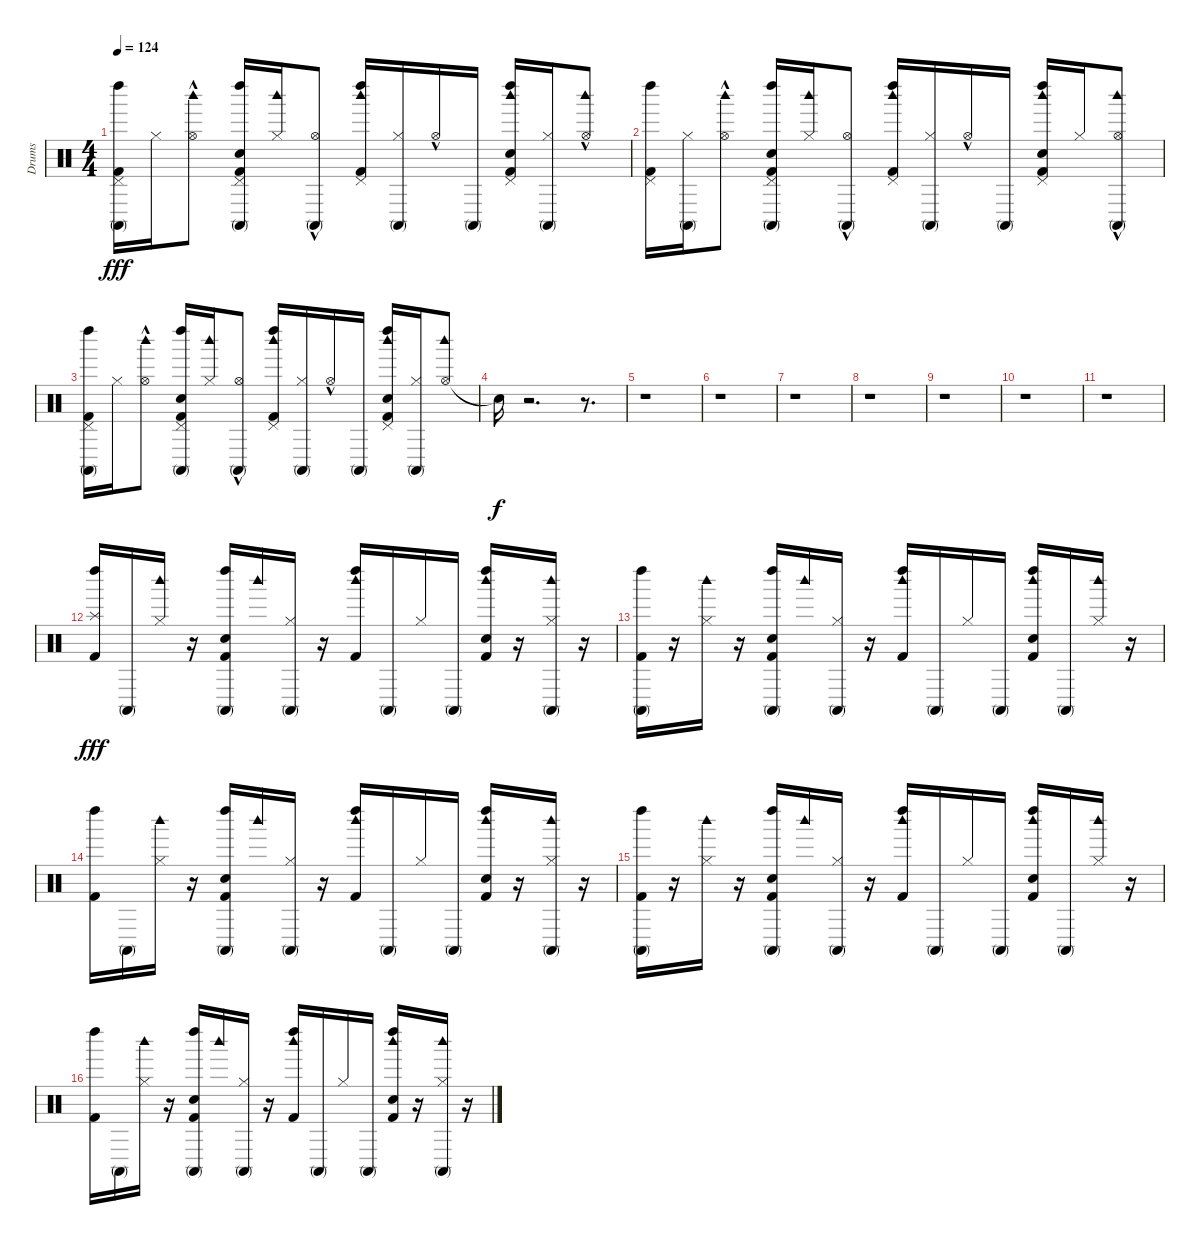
\track ("Drums" "Drums") {instrument percussion}
\staff {score}
\articulation defaults
\ts (4 4)
\tempo 124
\clef neutral
\ks c
("Pedal Hi-Hat (hit)" "Kick (hit) 2" "Conga high (mute)" "Left Maraca (hit)").16{dy fff} "Hi-Hat (closed)".16 ("Hi-Hat (open)"{hac} "Woodblock high (hit)").8 ("Electric Snare (hit)" "Pedal Hi-Hat (hit)" "Kick (hit) 2" "Conga high (mute)" "Left Maraca (hit)").16 ("Hi-Hat (closed)" "Woodblock high (hit)").16 ("Hi-Hat (open)"{hac} "Conga high (mute)").8 ("Pedal Hi-Hat (hit)" "Kick (hit) 2" "Woodblock high (hit)" "Left Maraca (hit)").16 ("Hi-Hat (closed)" "Conga high (mute)").16 "Hi-Hat (open)"{hac}.16 "Conga high (mute)".16 ("Electric Snare (hit)" "Pedal Hi-Hat (hit)" "Kick (hit) 2" "Woodblock high (hit)" "Left Maraca (hit)").16 ("Hi-Hat (closed)" "Conga high (mute)").16 ("Hi-Hat (open)"{hac} "Woodblock high (hit)").8 |
("Pedal Hi-Hat (hit)" "Kick (hit) 2" "Left Maraca (hit)").16 ("Hi-Hat (closed)" "Conga high (mute)").16 ("Hi-Hat (open)"{hac} "Woodblock high (hit)").8 ("Electric Snare (hit)" "Pedal Hi-Hat (hit)" "Kick (hit) 2" "Conga high (mute)" "Left Maraca (hit)").16 ("Hi-Hat (closed)" "Woodblock high (hit)").16 ("Hi-Hat (open)"{hac} "Conga high (mute)").8 ("Pedal Hi-Hat (hit)" "Kick (hit) 2" "Woodblock high (hit)" "Left Maraca (hit)").16 ("Hi-Hat (closed)" "Conga high (mute)").16 "Hi-Hat (open)"{hac}.16 "Conga high (mute)".16 ("Electric Snare (hit)" "Pedal Hi-Hat (hit)" "Kick (hit) 2" "Woodblock high (hit)" "Left Maraca (hit)").16 "Hi-Hat (closed)".16 ("Hi-Hat (open)"{hac} "Conga high (mute)" "Woodblock high (hit)").8 |
("Pedal Hi-Hat (hit)" "Kick (hit) 2" "Conga high (mute)" "Left Maraca (hit)").16 "Hi-Hat (closed)".16 ("Hi-Hat (open)"{hac} "Woodblock high (hit)").8 ("Electric Snare (hit)" "Pedal Hi-Hat (hit)" "Kick (hit) 2" "Conga high (mute)" "Left Maraca (hit)").16 ("Hi-Hat (closed)" "Woodblock high (hit)").16 ("Hi-Hat (open)"{hac} "Conga high (mute)").8 ("Pedal Hi-Hat (hit)" "Kick (hit) 2" "Woodblock high (hit)" "Left Maraca (hit)").16 ("Hi-Hat (closed)" "Conga high (mute)").16 "Hi-Hat (open)"{hac}.16 "Conga high (mute)".16 ("Electric Snare (hit)" "Pedal Hi-Hat (hit)" "Kick (hit) 2" "Woodblock high (hit)" "Left Maraca (hit)").16 ("Hi-Hat (closed)" "Conga high (mute)").16 ("Hi-Hat (open)" "Woodblock high (hit)").8 |
"Snare (hit)"{t}.16{dy f} r.2{d} r.8{d} |
r.1 |
r.1 |
r.1 |
r.1 |
r.1 |
r.1 |
r.1 |
("Left Maraca (hit)" "Splash (hit)" "Kick (hit) 2").16{dy fff} "Conga high (mute)".16 ("Woodblock high (hit)" "Hi-Hat (closed)").16 r.16 ("Hand Clap (hit)" "Left Maraca (hit)" "Conga high (mute)" "Kick (hit) 2").16 "Woodblock high (hit)".16 ("Conga high (mute)" "Hi-Hat (closed)").16 r.16 ("Left Maraca (hit)" "Woodblock high (hit)" "Kick (hit) 2").16 "Conga high (mute)".16 "Hi-Hat (closed)".16 "Conga high (mute)".16 ("Hand Clap (hit)" "Left Maraca (hit)" "Woodblock high (hit)" "Kick (hit) 2").16 r.16 ("Woodblock high (hit)" "Conga high (mute)" "Hi-Hat (closed)").16 r.16 |
("Left Maraca (hit)" "Conga high (mute)" "Kick (hit) 2").16 r.16 ("Woodblock high (hit)" "Hi-Hat (closed)").16 r.16 ("Hand Clap (hit)" "Left Maraca (hit)" "Conga high (mute)" "Kick (hit) 2").16 "Woodblock high (hit)".16 ("Conga high (mute)" "Hi-Hat (closed)").16 r.16 ("Left Maraca (hit)" "Woodblock high (hit)" "Kick (hit) 2").16 "Conga high (mute)".16 "Hi-Hat (closed)".16 "Conga high (mute)".16 ("Hand Clap (hit)" "Left Maraca (hit)" "Woodblock high (hit)" "Kick (hit) 2").16 "Conga high (mute)".16 ("Woodblock high (hit)" "Hi-Hat (closed)").16 r.16 |
("Left Maraca (hit)" "Kick (hit) 2").16 "Conga high (mute)".16 ("Woodblock high (hit)" "Hi-Hat (closed)").16 r.16 ("Hand Clap (hit)" "Left Maraca (hit)" "Conga high (mute)" "Kick (hit) 2").16 "Woodblock high (hit)".16 ("Conga high (mute)" "Hi-Hat (closed)").16 r.16 ("Left Maraca (hit)" "Woodblock high (hit)" "Kick (hit) 2").16 "Conga high (mute)".16 "Hi-Hat (closed)".16 "Conga high (mute)".16 ("Hand Clap (hit)" "Left Maraca (hit)" "Woodblock high (hit)" "Kick (hit) 2").16 r.16 ("Woodblock high (hit)" "Conga high (mute)" "Hi-Hat (closed)").16 r.16 |
("Left Maraca (hit)" "Conga high (mute)" "Kick (hit) 2").16 r.16 ("Woodblock high (hit)" "Hi-Hat (closed)").16 r.16 ("Hand Clap (hit)" "Left Maraca (hit)" "Conga high (mute)" "Kick (hit) 2").16 "Woodblock high (hit)".16 ("Conga high (mute)" "Hi-Hat (closed)").16 r.16 ("Left Maraca (hit)" "Woodblock high (hit)" "Kick (hit) 2").16 "Conga high (mute)".16 "Hi-Hat (closed)".16 "Conga high (mute)".16 ("Hand Clap (hit)" "Left Maraca (hit)" "Woodblock high (hit)" "Kick (hit) 2").16 "Conga high (mute)".16 ("Woodblock high (hit)" "Hi-Hat (closed)").16 r.16 |
("Left Maraca (hit)" "Kick (hit) 2").16 "Conga high (mute)".16 ("Woodblock high (hit)" "Hi-Hat (closed)").16 r.16 ("Hand Clap (hit)" "Conga high (mute)" "Left Maraca (hit)" "Kick (hit) 2").16 "Woodblock high (hit)".16 ("Conga high (mute)" "Hi-Hat (closed)").16 r.16 ("Woodblock high (hit)" "Left Maraca (hit)" "Kick (hit) 2").16 "Conga high (mute)".16 "Hi-Hat (closed)".16 "Conga high (mute)".16 ("Hand Clap (hit)" "Woodblock high (hit)" "Left Maraca (hit)" "Kick (hit) 2").16 r.16 ("Conga high (mute)" "Woodblock high (hit)" "Hi-Hat (closed)").16 r.16
